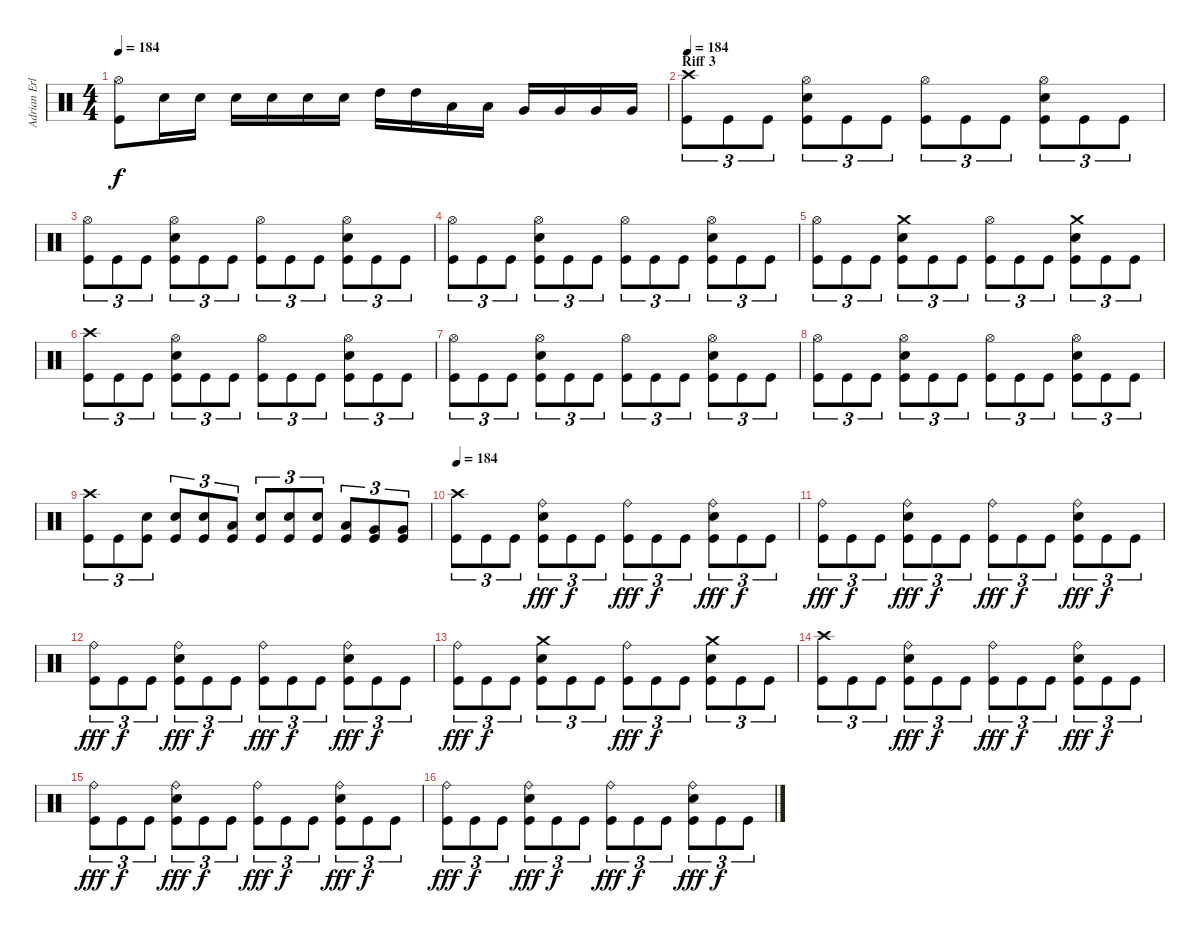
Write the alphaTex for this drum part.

\track ("Adrian Erlandsson (Norseman of the Apoca" "Adrian Erl") {instrument percussion}
\staff {score}
\articulation defaults
\ts (4 4)
\tempo 184
\clef neutral
\ks c
("Hi-Hat (open)" "Kick (hit)").8{dy f} "Electric Snare (hit)".16 "Electric Snare (hit)".16 "Electric Snare (hit)".16 "Electric Snare (hit)".16 "Electric Snare (hit)".16 "Electric Snare (hit)".16 "High Tom (hit)".16 "High Tom (hit)".16 "Low Tom (hit)".16 "Low Tom (hit)".16 "Very Low Tom (hit)".16 "Very Low Tom (hit)".16 "Very Low Tom (hit)".16 "Very Low Tom (hit)".16 |
\section ("" "Riff 3")
\tempo 184
("Crash high (hit)" "Kick (hit)").8{tu (3 2)} "Kick (hit)".8{tu (3 2)} "Kick (hit)".8{tu (3 2)} ("Hi-Hat (open)" "Electric Snare (hit)" "Kick (hit)").8{tu (3 2)} "Kick (hit)".8{tu (3 2)} "Kick (hit)".8{tu (3 2)} ("Hi-Hat (open)" "Kick (hit)").8{tu (3 2)} "Kick (hit)".8{tu (3 2)} "Kick (hit)".8{tu (3 2)} ("Hi-Hat (open)" "Electric Snare (hit)" "Kick (hit)").8{tu (3 2)} "Kick (hit)".8{tu (3 2)} "Kick (hit)".8{tu (3 2)} |
("Hi-Hat (open)" "Kick (hit)").8{tu (3 2)} "Kick (hit)".8{tu (3 2)} "Kick (hit)".8{tu (3 2)} ("Hi-Hat (open)" "Electric Snare (hit)" "Kick (hit)").8{tu (3 2)} "Kick (hit)".8{tu (3 2)} "Kick (hit)".8{tu (3 2)} ("Hi-Hat (open)" "Kick (hit)").8{tu (3 2)} "Kick (hit)".8{tu (3 2)} "Kick (hit)".8{tu (3 2)} ("Hi-Hat (open)" "Electric Snare (hit)" "Kick (hit)").8{tu (3 2)} "Kick (hit)".8{tu (3 2)} "Kick (hit)".8{tu (3 2)} |
("Hi-Hat (open)" "Kick (hit)").8{tu (3 2)} "Kick (hit)".8{tu (3 2)} "Kick (hit)".8{tu (3 2)} ("Hi-Hat (open)" "Electric Snare (hit)" "Kick (hit)").8{tu (3 2)} "Kick (hit)".8{tu (3 2)} "Kick (hit)".8{tu (3 2)} ("Hi-Hat (open)" "Kick (hit)").8{tu (3 2)} "Kick (hit)".8{tu (3 2)} "Kick (hit)".8{tu (3 2)} ("Hi-Hat (open)" "Electric Snare (hit)" "Kick (hit)").8{tu (3 2)} "Kick (hit)".8{tu (3 2)} "Kick (hit)".8{tu (3 2)} |
("Hi-Hat (open)" "Kick (hit)").8{tu (3 2)} "Kick (hit)".8{tu (3 2)} "Kick (hit)".8{tu (3 2)} ("Crash medium (hit)" "Electric Snare (hit)" "Kick (hit)").8{tu (3 2)} "Kick (hit)".8{tu (3 2)} "Kick (hit)".8{tu (3 2)} ("Hi-Hat (open)" "Kick (hit)").8{tu (3 2)} "Kick (hit)".8{tu (3 2)} "Kick (hit)".8{tu (3 2)} ("Crash medium (hit)" "Electric Snare (hit)" "Kick (hit)").8{tu (3 2)} "Kick (hit)".8{tu (3 2)} "Kick (hit)".8{tu (3 2)} |
("Crash high (hit)" "Kick (hit)").8{tu (3 2)} "Kick (hit)".8{tu (3 2)} "Kick (hit)".8{tu (3 2)} ("Hi-Hat (open)" "Electric Snare (hit)" "Kick (hit)").8{tu (3 2)} "Kick (hit)".8{tu (3 2)} "Kick (hit)".8{tu (3 2)} ("Hi-Hat (open)" "Kick (hit)").8{tu (3 2)} "Kick (hit)".8{tu (3 2)} "Kick (hit)".8{tu (3 2)} ("Hi-Hat (open)" "Electric Snare (hit)" "Kick (hit)").8{tu (3 2)} "Kick (hit)".8{tu (3 2)} "Kick (hit)".8{tu (3 2)} |
("Hi-Hat (open)" "Kick (hit)").8{tu (3 2)} "Kick (hit)".8{tu (3 2)} "Kick (hit)".8{tu (3 2)} ("Hi-Hat (open)" "Electric Snare (hit)" "Kick (hit)").8{tu (3 2)} "Kick (hit)".8{tu (3 2)} "Kick (hit)".8{tu (3 2)} ("Hi-Hat (open)" "Kick (hit)").8{tu (3 2)} "Kick (hit)".8{tu (3 2)} "Kick (hit)".8{tu (3 2)} ("Hi-Hat (open)" "Electric Snare (hit)" "Kick (hit)").8{tu (3 2)} "Kick (hit)".8{tu (3 2)} "Kick (hit)".8{tu (3 2)} |
("Hi-Hat (open)" "Kick (hit)").8{tu (3 2)} "Kick (hit)".8{tu (3 2)} "Kick (hit)".8{tu (3 2)} ("Hi-Hat (open)" "Electric Snare (hit)" "Kick (hit)").8{tu (3 2)} "Kick (hit)".8{tu (3 2)} "Kick (hit)".8{tu (3 2)} ("Hi-Hat (open)" "Kick (hit)").8{tu (3 2)} "Kick (hit)".8{tu (3 2)} "Kick (hit)".8{tu (3 2)} ("Hi-Hat (open)" "Electric Snare (hit)" "Kick (hit)").8{tu (3 2)} "Kick (hit)".8{tu (3 2)} "Kick (hit)".8{tu (3 2)} |
("Crash high (hit)" "Kick (hit)").8{tu (3 2)} "Kick (hit)".8{tu (3 2)} ("Electric Snare (hit)" "Kick (hit)").8{tu (3 2)} ("Electric Snare (hit)" "Kick (hit)").8{tu (3 2)} ("Electric Snare (hit)" "Kick (hit)").8{tu (3 2)} ("Low Tom (hit)" "Kick (hit)").8{tu (3 2)} ("Electric Snare (hit)" "Kick (hit)").8{tu (3 2)} ("Electric Snare (hit)" "Kick (hit)").8{tu (3 2)} ("Electric Snare (hit)" "Kick (hit)").8{tu (3 2)} ("Low Tom (hit)" "Kick (hit)").8{tu (3 2)} ("Very Low Tom (hit)" "Kick (hit)").8{tu (3 2)} ("Very Low Tom (hit)" "Kick (hit)").8{tu (3 2)} |
\tempo 184
("Crash high (hit)" "Kick (hit)").8{tu (3 2)} "Kick (hit)".8{tu (3 2)} "Kick (hit)".8{tu (3 2)} ("Ride (bell)" "Electric Snare (hit)" "Kick (hit)").8{tu (3 2) dy fff} "Kick (hit)".8{tu (3 2) dy f} "Kick (hit)".8{tu (3 2)} ("Ride (bell)" "Kick (hit)").8{tu (3 2) dy fff} "Kick (hit)".8{tu (3 2) dy f} "Kick (hit)".8{tu (3 2)} ("Ride (bell)" "Electric Snare (hit)" "Kick (hit)").8{tu (3 2) dy fff} "Kick (hit)".8{tu (3 2) dy f} "Kick (hit)".8{tu (3 2)} |
("Ride (bell)" "Kick (hit)").8{tu (3 2) dy fff} "Kick (hit)".8{tu (3 2) dy f} "Kick (hit)".8{tu (3 2)} ("Ride (bell)" "Electric Snare (hit)" "Kick (hit)").8{tu (3 2) dy fff} "Kick (hit)".8{tu (3 2) dy f} "Kick (hit)".8{tu (3 2)} ("Ride (bell)" "Kick (hit)").8{tu (3 2) dy fff} "Kick (hit)".8{tu (3 2) dy f} "Kick (hit)".8{tu (3 2)} ("Ride (bell)" "Electric Snare (hit)" "Kick (hit)").8{tu (3 2) dy fff} "Kick (hit)".8{tu (3 2) dy f} "Kick (hit)".8{tu (3 2)} |
("Ride (bell)" "Kick (hit)").8{tu (3 2) dy fff} "Kick (hit)".8{tu (3 2) dy f} "Kick (hit)".8{tu (3 2)} ("Ride (bell)" "Electric Snare (hit)" "Kick (hit)").8{tu (3 2) dy fff} "Kick (hit)".8{tu (3 2) dy f} "Kick (hit)".8{tu (3 2)} ("Ride (bell)" "Kick (hit)").8{tu (3 2) dy fff} "Kick (hit)".8{tu (3 2) dy f} "Kick (hit)".8{tu (3 2)} ("Ride (bell)" "Electric Snare (hit)" "Kick (hit)").8{tu (3 2) dy fff} "Kick (hit)".8{tu (3 2) dy f} "Kick (hit)".8{tu (3 2)} |
("Ride (bell)" "Kick (hit)").8{tu (3 2) dy fff} "Kick (hit)".8{tu (3 2) dy f} "Kick (hit)".8{tu (3 2)} ("Crash medium (hit)" "Electric Snare (hit)" "Kick (hit)").8{tu (3 2)} "Kick (hit)".8{tu (3 2)} "Kick (hit)".8{tu (3 2)} ("Ride (bell)" "Kick (hit)").8{tu (3 2) dy fff} "Kick (hit)".8{tu (3 2) dy f} "Kick (hit)".8{tu (3 2)} ("Crash medium (hit)" "Electric Snare (hit)" "Kick (hit)").8{tu (3 2)} "Kick (hit)".8{tu (3 2)} "Kick (hit)".8{tu (3 2)} |
("Crash high (hit)" "Kick (hit)").8{tu (3 2)} "Kick (hit)".8{tu (3 2)} "Kick (hit)".8{tu (3 2)} ("Ride (bell)" "Electric Snare (hit)" "Kick (hit)").8{tu (3 2) dy fff} "Kick (hit)".8{tu (3 2) dy f} "Kick (hit)".8{tu (3 2)} ("Ride (bell)" "Kick (hit)").8{tu (3 2) dy fff} "Kick (hit)".8{tu (3 2) dy f} "Kick (hit)".8{tu (3 2)} ("Ride (bell)" "Electric Snare (hit)" "Kick (hit)").8{tu (3 2) dy fff} "Kick (hit)".8{tu (3 2) dy f} "Kick (hit)".8{tu (3 2)} |
("Ride (bell)" "Kick (hit)").8{tu (3 2) dy fff} "Kick (hit)".8{tu (3 2) dy f} "Kick (hit)".8{tu (3 2)} ("Ride (bell)" "Electric Snare (hit)" "Kick (hit)").8{tu (3 2) dy fff} "Kick (hit)".8{tu (3 2) dy f} "Kick (hit)".8{tu (3 2)} ("Ride (bell)" "Kick (hit)").8{tu (3 2) dy fff} "Kick (hit)".8{tu (3 2) dy f} "Kick (hit)".8{tu (3 2)} ("Ride (bell)" "Electric Snare (hit)" "Kick (hit)").8{tu (3 2) dy fff} "Kick (hit)".8{tu (3 2) dy f} "Kick (hit)".8{tu (3 2)} |
("Ride (bell)" "Kick (hit)").8{tu (3 2) dy fff} "Kick (hit)".8{tu (3 2) dy f} "Kick (hit)".8{tu (3 2)} ("Ride (bell)" "Electric Snare (hit)" "Kick (hit)").8{tu (3 2) dy fff} "Kick (hit)".8{tu (3 2) dy f} "Kick (hit)".8{tu (3 2)} ("Ride (bell)" "Kick (hit)").8{tu (3 2) dy fff} "Kick (hit)".8{tu (3 2) dy f} "Kick (hit)".8{tu (3 2)} ("Ride (bell)" "Electric Snare (hit)" "Kick (hit)").8{tu (3 2) dy fff} "Kick (hit)".8{tu (3 2) dy f} "Kick (hit)".8{tu (3 2)}
